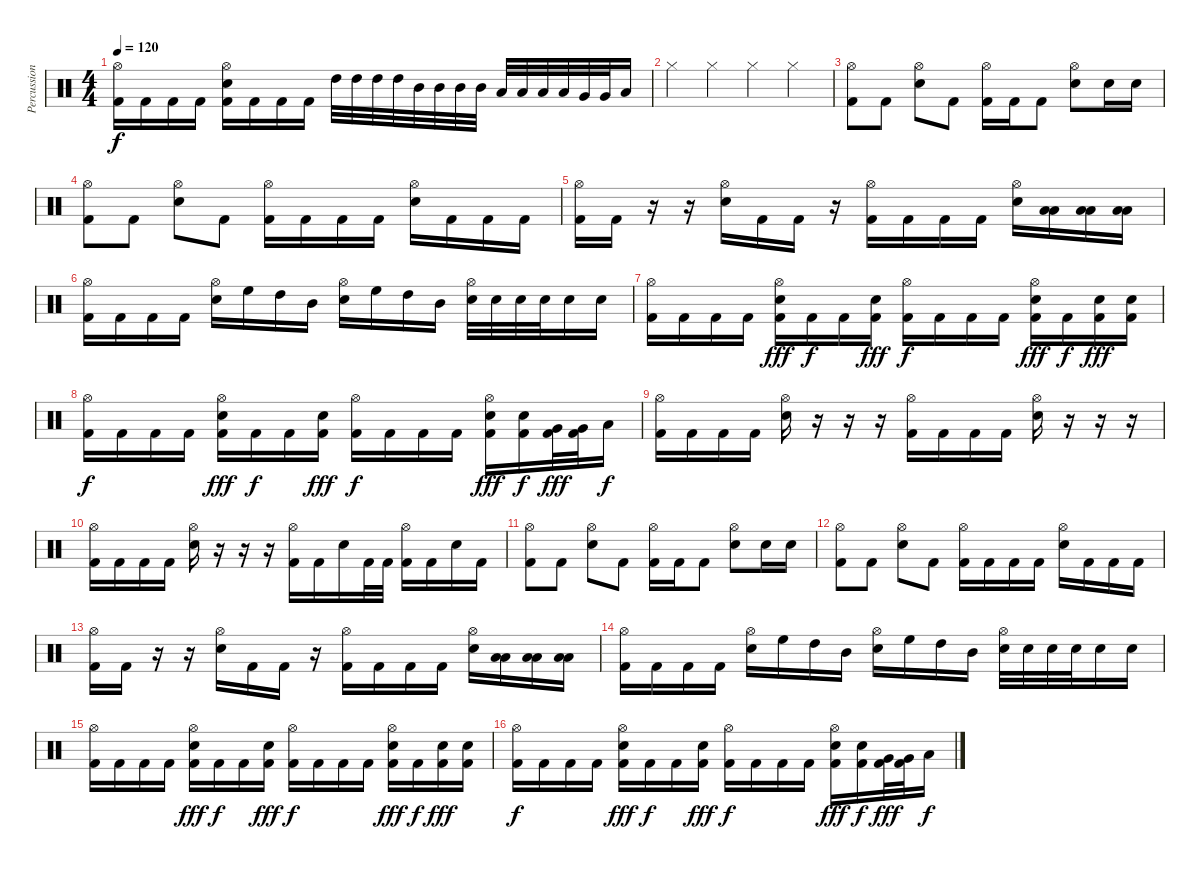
\track ("Percussion" "Percussion") {instrument percussion}
\staff {score}
\articulation defaults
\ts (4 4)
\tempo 120
\clef neutral
\ks c
("Hi-Hat (open)" "Kick (hit) 2").16{dy f} "Kick (hit) 2".16 "Kick (hit) 2".16 "Kick (hit) 2".16 ("Hi-Hat (open)" "Snare (hit) 2" "Kick (hit) 2").16 "Kick (hit) 2".16 "Kick (hit) 2".16 "Kick (hit) 2".16 "High Tom (hit)".32 "High Tom (hit)".32 "High Tom (hit)".32 "High Tom (hit)".32 "Mid Tom (hit)".32 "Mid Tom (hit)".32 "Mid Tom (hit)".32 "Mid Tom (hit)".32 "Low Tom (hit)".32 "Low Tom (hit)".32 "Low Tom (hit)".32 "Low Tom (hit)".32 "Very Low Tom (hit)".32 "Very Low Tom (hit)".32 "Low Floor Tom (hit)".16 |
"Hi-Hat (closed)".4 "Hi-Hat (closed)".4 "Hi-Hat (closed)".4 "Hi-Hat (closed)".4 |
("Hi-Hat (open)" "Kick (hit) 2").8 "Kick (hit) 2".8 ("Hi-Hat (open)" "Snare (hit) 2").8 "Kick (hit) 2".8 ("Hi-Hat (open)" "Kick (hit) 2").16 "Kick (hit) 2".16 "Kick (hit) 2".8 ("Hi-Hat (open)" "Snare (hit) 2").8 "Snare (hit) 2".16 "Snare (hit) 2".16 |
("Hi-Hat (open)" "Kick (hit) 2").8 "Kick (hit) 2".8 ("Hi-Hat (open)" "Snare (hit) 2").8 "Kick (hit) 2".8 ("Hi-Hat (open)" "Kick (hit) 2").16 "Kick (hit) 2".16 "Kick (hit) 2".16 "Kick (hit) 2".16 ("Hi-Hat (open)" "Snare (hit) 2").16 "Kick (hit) 2".16 "Kick (hit) 2".16 "Kick (hit) 2".16 |
("Hi-Hat (open)" "Kick (hit) 2").16 "Kick (hit) 2".16 r.16 r.16 ("Hi-Hat (open)" "Snare (hit) 2").16 "Kick (hit) 2".16 "Kick (hit) 2".16 r.16 ("Hi-Hat (open)" "Kick (hit) 2").16 "Kick (hit) 2".16 "Kick (hit) 2".16 "Kick (hit) 2".16 ("Hi-Hat (open)" "Snare (hit) 2").16 ("Low Tom (hit)" "Low Tom (hit)").16 ("Low Tom (hit)" "Low Tom (hit)").16 ("Low Tom (hit)" "Low Tom (hit)").16 |
("Hi-Hat (open)" "Kick (hit) 2").16 "Kick (hit) 2".16 "Kick (hit) 2".16 "Kick (hit) 2".16 ("Hi-Hat (open)" "Snare (hit) 2").16 "High Floor Tom (hit)".16 "High Tom (hit)".16 "Mid Tom (hit)".16 ("Hi-Hat (open)" "Snare (hit) 2").16 "High Floor Tom (hit)".16 "High Tom (hit)".16 "Mid Tom (hit)".16 ("Hi-Hat (open)" "Snare (hit) 2").32 "Snare (hit) 2".32 "Snare (hit) 2".32 "Snare (hit) 2".32 "Snare (hit) 2".16 "Snare (hit) 2".16 |
("Hi-Hat (open)" "Kick (hit) 2").16 "Kick (hit) 2".16 "Kick (hit) 2".16 "Kick (hit) 2".16 ("Hi-Hat (open)" "Snare (hit) 2" "Kick (hit) 2").16{dy fff} "Kick (hit) 2".16{dy f} "Kick (hit) 2".16 ("Snare (hit) 2" "Kick (hit) 2").16{dy fff} ("Hi-Hat (open)" "Kick (hit) 2").16{dy f} "Kick (hit) 2".16 "Kick (hit) 2".16 "Kick (hit) 2".16 ("Hi-Hat (open)" "Snare (hit) 2" "Kick (hit) 2").16{dy fff} "Kick (hit) 2".16{dy f} ("Snare (hit) 2" "Kick (hit) 2").16{dy fff} ("Snare (hit) 2" "Kick (hit) 2").16 |
("Hi-Hat (open)" "Kick (hit) 2").16{dy f} "Kick (hit) 2".16 "Kick (hit) 2".16 "Kick (hit) 2".16 ("Hi-Hat (open)" "Snare (hit) 2" "Kick (hit) 2").16{dy fff} "Kick (hit) 2".16{dy f} "Kick (hit) 2".16 ("Snare (hit) 2" "Kick (hit) 2").16{dy fff} ("Hi-Hat (open)" "Kick (hit) 2").16{dy f} "Kick (hit) 2".16 "Kick (hit) 2".16 "Kick (hit) 2".16 ("Hi-Hat (open)" "Snare (hit) 2" "Kick (hit) 2").16{dy fff} ("Snare (hit) 2" "Kick (hit) 2").16{dy f} ("Very Low Tom (hit)" "Kick (hit) 2").32{dy fff} ("Very Low Tom (hit)" "Kick (hit) 2").32 "Low Floor Tom (hit)".16{dy f} |
("Hi-Hat (open)" "Kick (hit) 2").16 "Kick (hit) 2".16 "Kick (hit) 2".16 "Kick (hit) 2".16 ("Hi-Hat (open)" "Snare (hit) 2").16 r.16 r.16 r.16 ("Hi-Hat (open)" "Kick (hit) 2").16 "Kick (hit) 2".16 "Kick (hit) 2".16 "Kick (hit) 2".16 ("Hi-Hat (open)" "Snare (hit) 2").16 r.16 r.16 r.16 |
("Hi-Hat (open)" "Kick (hit) 2").16 "Kick (hit) 2".16 "Kick (hit) 2".16 "Kick (hit) 2".16 ("Hi-Hat (open)" "Snare (hit) 2").16 r.16 r.16 r.16 ("Hi-Hat (open)" "Kick (hit) 2").16 "Kick (hit) 2".16 "Snare (hit) 2".16 "Kick (hit) 2".32 "Kick (hit) 2".32 ("Hi-Hat (open)" "Kick (hit) 2").16 "Kick (hit) 2".16 "Snare (hit) 2".16 "Kick (hit) 2".16 |
("Hi-Hat (open)" "Kick (hit) 2").8 "Kick (hit) 2".8 ("Hi-Hat (open)" "Snare (hit) 2").8 "Kick (hit) 2".8 ("Hi-Hat (open)" "Kick (hit) 2").16 "Kick (hit) 2".16 "Kick (hit) 2".8 ("Hi-Hat (open)" "Snare (hit) 2").8 "Snare (hit) 2".16 "Snare (hit) 2".16 |
("Hi-Hat (open)" "Kick (hit) 2").8 "Kick (hit) 2".8 ("Hi-Hat (open)" "Snare (hit) 2").8 "Kick (hit) 2".8 ("Hi-Hat (open)" "Kick (hit) 2").16 "Kick (hit) 2".16 "Kick (hit) 2".16 "Kick (hit) 2".16 ("Hi-Hat (open)" "Snare (hit) 2").16 "Kick (hit) 2".16 "Kick (hit) 2".16 "Kick (hit) 2".16 |
("Hi-Hat (open)" "Kick (hit) 2").16 "Kick (hit) 2".16 r.16 r.16 ("Hi-Hat (open)" "Snare (hit) 2").16 "Kick (hit) 2".16 "Kick (hit) 2".16 r.16 ("Hi-Hat (open)" "Kick (hit) 2").16 "Kick (hit) 2".16 "Kick (hit) 2".16 "Kick (hit) 2".16 ("Hi-Hat (open)" "Snare (hit) 2").16 ("Low Tom (hit)" "Low Tom (hit)").16 ("Low Tom (hit)" "Low Tom (hit)").16 ("Low Tom (hit)" "Low Tom (hit)").16 |
("Hi-Hat (open)" "Kick (hit) 2").16 "Kick (hit) 2".16 "Kick (hit) 2".16 "Kick (hit) 2".16 ("Hi-Hat (open)" "Snare (hit) 2").16 "High Floor Tom (hit)".16 "High Tom (hit)".16 "Mid Tom (hit)".16 ("Hi-Hat (open)" "Snare (hit) 2").16 "High Floor Tom (hit)".16 "High Tom (hit)".16 "Mid Tom (hit)".16 ("Hi-Hat (open)" "Snare (hit) 2").32 "Snare (hit) 2".32 "Snare (hit) 2".32 "Snare (hit) 2".32 "Snare (hit) 2".16 "Snare (hit) 2".16 |
("Hi-Hat (open)" "Kick (hit) 2").16 "Kick (hit) 2".16 "Kick (hit) 2".16 "Kick (hit) 2".16 ("Hi-Hat (open)" "Snare (hit) 2" "Kick (hit) 2").16{dy fff} "Kick (hit) 2".16{dy f} "Kick (hit) 2".16 ("Snare (hit) 2" "Kick (hit) 2").16{dy fff} ("Hi-Hat (open)" "Kick (hit) 2").16{dy f} "Kick (hit) 2".16 "Kick (hit) 2".16 "Kick (hit) 2".16 ("Hi-Hat (open)" "Snare (hit) 2" "Kick (hit) 2").16{dy fff} "Kick (hit) 2".16{dy f} ("Snare (hit) 2" "Kick (hit) 2").16{dy fff} ("Snare (hit) 2" "Kick (hit) 2").16 |
("Hi-Hat (open)" "Kick (hit) 2").16{dy f} "Kick (hit) 2".16 "Kick (hit) 2".16 "Kick (hit) 2".16 ("Hi-Hat (open)" "Snare (hit) 2" "Kick (hit) 2").16{dy fff} "Kick (hit) 2".16{dy f} "Kick (hit) 2".16 ("Snare (hit) 2" "Kick (hit) 2").16{dy fff} ("Hi-Hat (open)" "Kick (hit) 2").16{dy f} "Kick (hit) 2".16 "Kick (hit) 2".16 "Kick (hit) 2".16 ("Hi-Hat (open)" "Snare (hit) 2" "Kick (hit) 2").16{dy fff} ("Snare (hit) 2" "Kick (hit) 2").16{dy f} ("Very Low Tom (hit)" "Kick (hit) 2").32{dy fff} ("Very Low Tom (hit)" "Kick (hit) 2").32 "Low Floor Tom (hit)".16{dy f}
